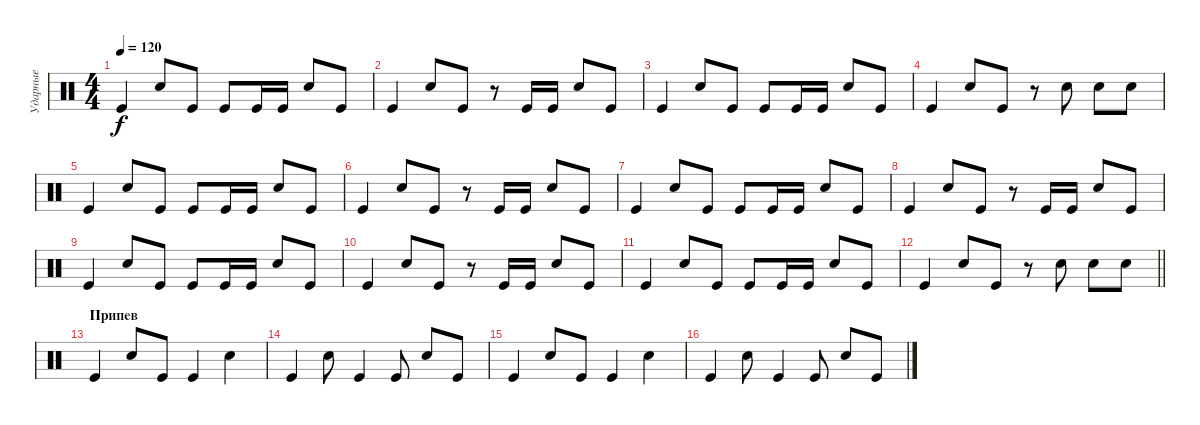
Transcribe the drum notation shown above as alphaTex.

\track ("Ударные" "Ударные") {instrument percussion}
\staff {score}
\articulation defaults
\ts (4 4)
\tempo 120
\clef neutral
\ks c "Kick (hit)".4{dy f} "Snare (hit) 2".8 "Kick (hit)".8 "Kick (hit)".8 "Kick (hit)".16 "Kick (hit)".16 "Snare (hit) 2".8 "Kick (hit)".8
|
"Kick (hit)".4 "Snare (hit) 2".8 "Kick (hit)".8 r.8 "Kick (hit)".16 "Kick (hit)".16 "Snare (hit) 2".8 "Kick (hit)".8 |
"Kick (hit)".4 "Snare (hit) 2".8 "Kick (hit)".8 "Kick (hit)".8 "Kick (hit)".16 "Kick (hit)".16 "Snare (hit) 2".8 "Kick (hit)".8 |
"Kick (hit)".4 "Snare (hit) 2".8 "Kick (hit)".8 r.8 "Snare (hit) 2".8 "Snare (hit) 2".8 "Snare (hit) 2".8 |
"Kick (hit)".4 "Snare (hit) 2".8 "Kick (hit)".8 "Kick (hit)".8 "Kick (hit)".16 "Kick (hit)".16 "Snare (hit) 2".8 "Kick (hit)".8 |
"Kick (hit)".4 "Snare (hit) 2".8 "Kick (hit)".8 r.8 "Kick (hit)".16 "Kick (hit)".16 "Snare (hit) 2".8 "Kick (hit)".8 |
"Kick (hit)".4 "Snare (hit) 2".8 "Kick (hit)".8 "Kick (hit)".8 "Kick (hit)".16 "Kick (hit)".16 "Snare (hit) 2".8 "Kick (hit)".8 |
"Kick (hit)".4 "Snare (hit) 2".8 "Kick (hit)".8 r.8 "Kick (hit)".16 "Kick (hit)".16 "Snare (hit) 2".8 "Kick (hit)".8 |
"Kick (hit)".4 "Snare (hit) 2".8 "Kick (hit)".8 "Kick (hit)".8 "Kick (hit)".16 "Kick (hit)".16 "Snare (hit) 2".8 "Kick (hit)".8 |
"Kick (hit)".4 "Snare (hit) 2".8 "Kick (hit)".8 r.8 "Kick (hit)".16 "Kick (hit)".16 "Snare (hit) 2".8 "Kick (hit)".8 |
"Kick (hit)".4 "Snare (hit) 2".8 "Kick (hit)".8 "Kick (hit)".8 "Kick (hit)".16 "Kick (hit)".16 "Snare (hit) 2".8 "Kick (hit)".8 |
\barLineRight lightlight "Kick (hit)".4 "Snare (hit) 2".8 "Kick (hit)".8
r.8 "Snare (hit) 2".8 "Snare (hit) 2".8 "Snare (hit) 2".8 |
\section ("" "Припев")
"Kick (hit)".4 "Snare (hit) 2".8 "Kick (hit)".8 "Kick (hit)".4 "Snare (hit) 2".4 |
"Kick (hit)".4 "Snare (hit) 2".8 "Kick (hit)".4 "Kick (hit)".8 "Snare (hit) 2".8 "Kick (hit)".8 |
"Kick (hit)".4 "Snare (hit) 2".8 "Kick (hit)".8 "Kick (hit)".4 "Snare (hit) 2".4 |
"Kick (hit)".4 "Snare (hit) 2".8 "Kick (hit)".4 "Kick (hit)".8 "Snare (hit) 2".8 "Kick (hit)".8
